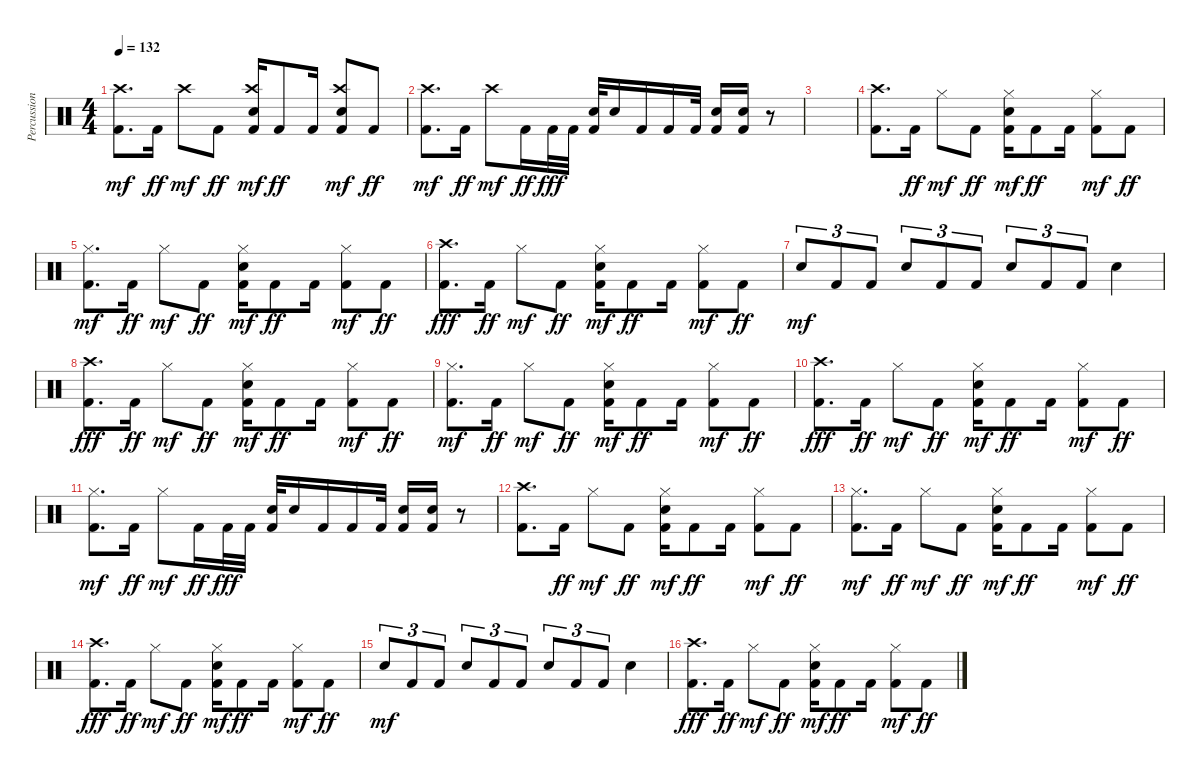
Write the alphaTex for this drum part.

\track ("Percussion" "Percussion") {instrument percussion}
\staff {score}
\articulation defaults
\ts (4 4)
\tempo 132
\clef neutral
\ks c
("Kick (hit) 2" "Crash high (hit)").8{d dy mf} "Kick (hit) 2".16{dy ff} "Crash high (hit)".8{dy mf} "Kick (hit) 2".8{dy ff} ("Kick (hit) 2" "Electric Snare (hit)" "Crash high (hit)").16{dy mf} "Kick (hit) 2".8{dy ff} "Kick (hit) 2".16 ("Kick (hit) 2" "Electric Snare (hit)" "Crash high (hit)").8{dy mf} "Kick (hit) 2".8{dy ff} |
("Kick (hit) 2" "Crash high (hit)").8{d dy mf} "Kick (hit) 2".16{dy ff} "Crash high (hit)".8{dy mf} "Kick (hit) 2".16{dy ff} "Kick (hit) 2".32{dy fff} "Kick (hit) 2".32 ("Kick (hit) 2" "Electric Snare (hit)").32 "Electric Snare (hit)".16 "Kick (hit) 2".16 "Kick (hit) 2".16 "Kick (hit) 2".32 ("Kick (hit) 2" "Electric Snare (hit)").16 ("Kick (hit) 2" "Electric Snare (hit)").16 r.8 |
|
("Kick (hit) 2" "Crash high (hit)").8{d} "Kick (hit) 2".16{dy ff} "Hi-Hat (closed)".8{dy mf} "Kick (hit) 2".8{dy ff} ("Kick (hit) 2" "Electric Snare (hit)" "Hi-Hat (closed)").16{dy mf} "Kick (hit) 2".8{dy ff} "Kick (hit) 2".16 ("Kick (hit) 2" "Hi-Hat (closed)").8{dy mf} "Kick (hit) 2".8{dy ff} |
("Kick (hit) 2" "Hi-Hat (closed)").8{d dy mf} "Kick (hit) 2".16{dy ff} "Hi-Hat (closed)".8{dy mf} "Kick (hit) 2".8{dy ff} ("Kick (hit) 2" "Electric Snare (hit)" "Hi-Hat (closed)").16{dy mf} "Kick (hit) 2".8{dy ff} "Kick (hit) 2".16 ("Kick (hit) 2" "Hi-Hat (closed)").8{dy mf} "Kick (hit) 2".8{dy ff} |
("Kick (hit) 2" "Crash high (hit)").8{d dy fff} "Kick (hit) 2".16{dy ff} "Hi-Hat (closed)".8{dy mf} "Kick (hit) 2".8{dy ff} ("Kick (hit) 2" "Electric Snare (hit)" "Hi-Hat (closed)").16{dy mf} "Kick (hit) 2".8{dy ff} "Kick (hit) 2".16 ("Kick (hit) 2" "Hi-Hat (closed)").8{dy mf} "Kick (hit) 2".8{dy ff} |
"Electric Snare (hit)".8{tu (3 2) dy mf} "Kick (hit) 2".8{tu (3 2)} "Kick (hit) 2".8{tu (3 2)} "Electric Snare (hit)".8{tu (3 2)} "Kick (hit) 2".8{tu (3 2)} "Kick (hit) 2".8{tu (3 2)} "Electric Snare (hit)".8{tu (3 2)} "Kick (hit) 2".8{tu (3 2)} "Kick (hit) 2".8{tu (3 2)} "Electric Snare (hit)".4 |
("Kick (hit) 2" "Crash high (hit)").8{d dy fff} "Kick (hit) 2".16{dy ff} "Hi-Hat (closed)".8{dy mf} "Kick (hit) 2".8{dy ff} ("Kick (hit) 2" "Electric Snare (hit)" "Hi-Hat (closed)").16{dy mf} "Kick (hit) 2".8{dy ff} "Kick (hit) 2".16 ("Kick (hit) 2" "Hi-Hat (closed)").8{dy mf} "Kick (hit) 2".8{dy ff} |
("Kick (hit) 2" "Hi-Hat (closed)").8{d dy mf} "Kick (hit) 2".16{dy ff} "Hi-Hat (closed)".8{dy mf} "Kick (hit) 2".8{dy ff} ("Kick (hit) 2" "Electric Snare (hit)" "Hi-Hat (closed)").16{dy mf} "Kick (hit) 2".8{dy ff} "Kick (hit) 2".16 ("Kick (hit) 2" "Hi-Hat (closed)").8{dy mf} "Kick (hit) 2".8{dy ff} |
("Kick (hit) 2" "Crash high (hit)").8{d dy fff} "Kick (hit) 2".16{dy ff} "Hi-Hat (closed)".8{dy mf} "Kick (hit) 2".8{dy ff} ("Kick (hit) 2" "Electric Snare (hit)" "Hi-Hat (closed)").16{dy mf} "Kick (hit) 2".8{dy ff} "Kick (hit) 2".16 ("Kick (hit) 2" "Hi-Hat (closed)").8{dy mf} "Kick (hit) 2".8{dy ff} |
("Kick (hit) 2" "Hi-Hat (closed)").8{d dy mf} "Kick (hit) 2".16{dy ff} "Hi-Hat (closed)".8{dy mf} "Kick (hit) 2".16{dy ff} "Kick (hit) 2".32{dy fff} "Kick (hit) 2".32 ("Kick (hit) 2" "Electric Snare (hit)").32 "Electric Snare (hit)".16 "Kick (hit) 2".16 "Kick (hit) 2".16 "Kick (hit) 2".32 ("Kick (hit) 2" "Electric Snare (hit)").16 ("Kick (hit) 2" "Electric Snare (hit)").16 r.8 |
("Kick (hit) 2" "Crash high (hit)").8{d} "Kick (hit) 2".16{dy ff} "Hi-Hat (closed)".8{dy mf} "Kick (hit) 2".8{dy ff} ("Kick (hit) 2" "Electric Snare (hit)" "Hi-Hat (closed)").16{dy mf} "Kick (hit) 2".8{dy ff} "Kick (hit) 2".16 ("Kick (hit) 2" "Hi-Hat (closed)").8{dy mf} "Kick (hit) 2".8{dy ff} |
("Kick (hit) 2" "Hi-Hat (closed)").8{d dy mf} "Kick (hit) 2".16{dy ff} "Hi-Hat (closed)".8{dy mf} "Kick (hit) 2".8{dy ff} ("Kick (hit) 2" "Electric Snare (hit)" "Hi-Hat (closed)").16{dy mf} "Kick (hit) 2".8{dy ff} "Kick (hit) 2".16 ("Kick (hit) 2" "Hi-Hat (closed)").8{dy mf} "Kick (hit) 2".8{dy ff} |
("Kick (hit) 2" "Crash high (hit)").8{d dy fff} "Kick (hit) 2".16{dy ff} "Hi-Hat (closed)".8{dy mf} "Kick (hit) 2".8{dy ff} ("Kick (hit) 2" "Electric Snare (hit)" "Hi-Hat (closed)").16{dy mf} "Kick (hit) 2".8{dy ff} "Kick (hit) 2".16 ("Kick (hit) 2" "Hi-Hat (closed)").8{dy mf} "Kick (hit) 2".8{dy ff} |
"Electric Snare (hit)".8{tu (3 2) dy mf} "Kick (hit) 2".8{tu (3 2)} "Kick (hit) 2".8{tu (3 2)} "Electric Snare (hit)".8{tu (3 2)} "Kick (hit) 2".8{tu (3 2)} "Kick (hit) 2".8{tu (3 2)} "Electric Snare (hit)".8{tu (3 2)} "Kick (hit) 2".8{tu (3 2)} "Kick (hit) 2".8{tu (3 2)} "Electric Snare (hit)".4 |
("Kick (hit) 2" "Crash high (hit)").8{d dy fff} "Kick (hit) 2".16{dy ff} "Hi-Hat (closed)".8{dy mf} "Kick (hit) 2".8{dy ff} ("Kick (hit) 2" "Electric Snare (hit)" "Hi-Hat (closed)").16{dy mf} "Kick (hit) 2".8{dy ff} "Kick (hit) 2".16 ("Kick (hit) 2" "Hi-Hat (closed)").8{dy mf} "Kick (hit) 2".8{dy ff}
